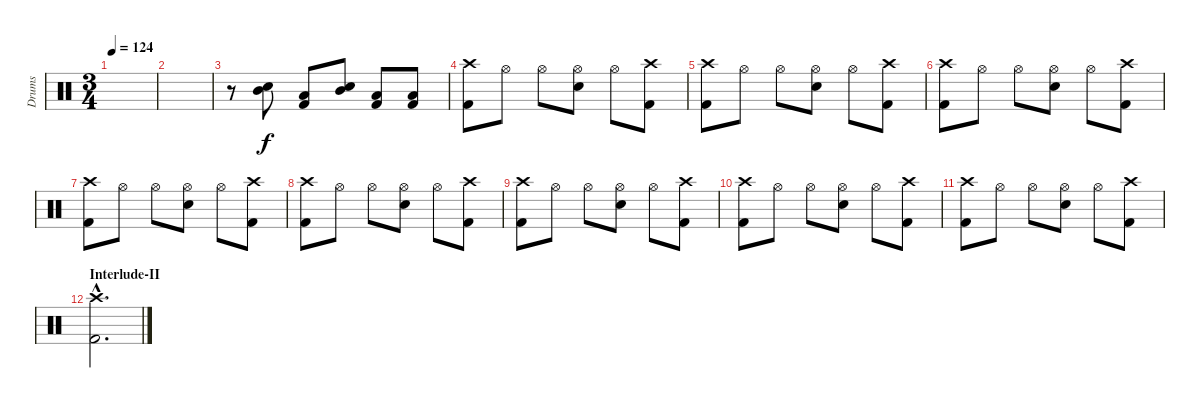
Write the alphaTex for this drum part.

\track ("Drums" "Drums") {instrument percussion}
\staff {score}
\articulation defaults
\ts (3 4)
\tempo 124
\clef neutral
\ks c
|
|
r.8 ("Mid Tom (hit)" "Electric Snare (hit)").8{dy f} ("Low Tom (hit)" "Kick (hit) 2").8 ("Mid Tom (hit)" "Electric Snare (hit)").8 ("Low Tom (hit)" "Kick (hit) 2").8 ("Low Tom (hit)" "Kick (hit) 2").8 |
("Crash high (hit)" "Kick (hit) 2").8 "Hi-Hat (open)".8 "Hi-Hat (open)".8 ("Hi-Hat (open)" "Electric Snare (hit)").8 "Hi-Hat (open)".8 ("Crash high (hit)" "Kick (hit) 2").8 |
("Crash high (hit)" "Kick (hit) 2").8 "Hi-Hat (open)".8 "Hi-Hat (open)".8 ("Hi-Hat (open)" "Electric Snare (hit)").8 "Hi-Hat (open)".8 ("Crash high (hit)" "Kick (hit) 2").8 |
("Crash high (hit)" "Kick (hit) 2").8 "Hi-Hat (open)".8 "Hi-Hat (open)".8 ("Hi-Hat (open)" "Electric Snare (hit)").8 "Hi-Hat (open)".8 ("Crash high (hit)" "Kick (hit) 2").8 |
("Crash high (hit)" "Kick (hit) 2").8 "Hi-Hat (open)".8 "Hi-Hat (open)".8 ("Hi-Hat (open)" "Electric Snare (hit)").8 "Hi-Hat (open)".8 ("Crash high (hit)" "Kick (hit) 2").8 |
("Crash high (hit)" "Kick (hit) 2").8 "Hi-Hat (open)".8 "Hi-Hat (open)".8 ("Hi-Hat (open)" "Electric Snare (hit)").8 "Hi-Hat (open)".8 ("Crash high (hit)" "Kick (hit) 2").8 |
("Crash high (hit)" "Kick (hit) 2").8 "Hi-Hat (open)".8 "Hi-Hat (open)".8 ("Hi-Hat (open)" "Electric Snare (hit)").8 "Hi-Hat (open)".8 ("Crash high (hit)" "Kick (hit) 2").8 |
("Crash high (hit)" "Kick (hit) 2").8 "Hi-Hat (open)".8 "Hi-Hat (open)".8 ("Hi-Hat (open)" "Electric Snare (hit)").8 "Hi-Hat (open)".8 ("Crash high (hit)" "Kick (hit) 2").8 |
("Crash high (hit)" "Kick (hit) 2").8 "Hi-Hat (open)".8 "Hi-Hat (open)".8 ("Hi-Hat (open)" "Electric Snare (hit)").8 "Hi-Hat (open)".8 ("Crash high (hit)" "Kick (hit) 2").8 |
\section ("" "Interlude-II")
("Crash high (hit)"{hac} "Kick (hit) 2"{hac}).2{d}
